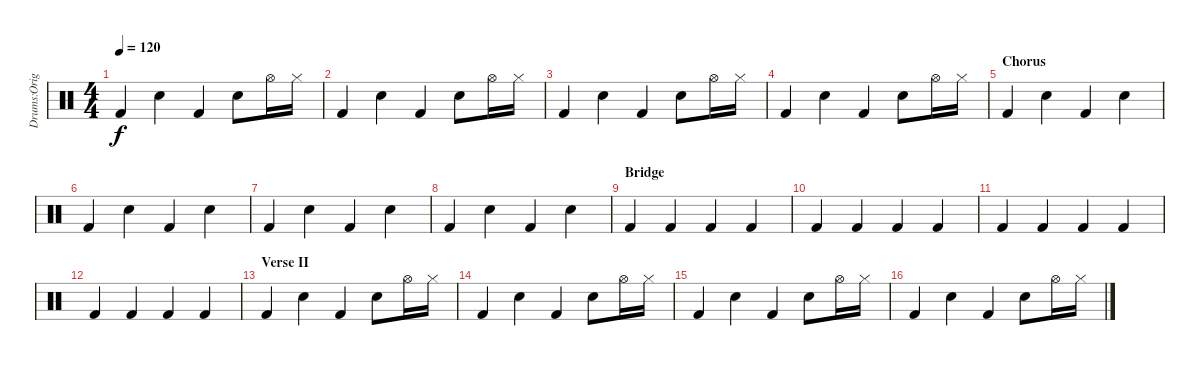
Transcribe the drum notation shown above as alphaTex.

\track ("Drums:Original" "Drums:Orig") {instrument percussion}
\staff {score}
\articulation defaults
\ts (4 4)
\tempo 120
\clef neutral
\ks c "Kick (hit) 2".4{dy f} "Snare (hit) 2".4 "Kick (hit) 2".4 "Snare (hit) 2".8 "Hi-Hat (open)".16 "Hi-Hat (closed)".16
|
"Kick (hit) 2".4 "Snare (hit) 2".4 "Kick (hit) 2".4 "Snare (hit) 2".8 "Hi-Hat (open)".16 "Hi-Hat (closed)".16 |
"Kick (hit) 2".4 "Snare (hit) 2".4 "Kick (hit) 2".4 "Snare (hit) 2".8 "Hi-Hat (open)".16 "Hi-Hat (closed)".16 |
"Kick (hit) 2".4 "Snare (hit) 2".4 "Kick (hit) 2".4 "Snare (hit) 2".8 "Hi-Hat (open)".16 "Hi-Hat (closed)".16 |
\section ("" "Chorus")
"Kick (hit) 2".4 "Snare (hit) 2".4 "Kick (hit) 2".4 "Snare (hit) 2".4 |
"Kick (hit) 2".4 "Snare (hit) 2".4 "Kick (hit) 2".4 "Snare (hit) 2".4 |
"Kick (hit) 2".4 "Snare (hit) 2".4 "Kick (hit) 2".4 "Snare (hit) 2".4 |
"Kick (hit) 2".4 "Snare (hit) 2".4 "Kick (hit) 2".4 "Snare (hit) 2".4 |
\section ("" "Bridge")
"Kick (hit) 2".4 "Kick (hit) 2".4 "Kick (hit) 2".4 "Kick (hit) 2".4 |
"Kick (hit) 2".4 "Kick (hit) 2".4 "Kick (hit) 2".4 "Kick (hit) 2".4 |
"Kick (hit) 2".4 "Kick (hit) 2".4 "Kick (hit) 2".4 "Kick (hit) 2".4 |
"Kick (hit) 2".4 "Kick (hit) 2".4 "Kick (hit) 2".4 "Kick (hit) 2".4 |
\section ("" "Verse II")
"Kick (hit) 2".4 "Snare (hit) 2".4 "Kick (hit) 2".4 "Snare (hit) 2".8 "Hi-Hat (open)".16 "Hi-Hat (closed)".16 |
"Kick (hit) 2".4 "Snare (hit) 2".4 "Kick (hit) 2".4 "Snare (hit) 2".8 "Hi-Hat (open)".16 "Hi-Hat (closed)".16 |
"Kick (hit) 2".4 "Snare (hit) 2".4 "Kick (hit) 2".4 "Snare (hit) 2".8 "Hi-Hat (open)".16 "Hi-Hat (closed)".16 |
"Kick (hit) 2".4 "Snare (hit) 2".4 "Kick (hit) 2".4 "Snare (hit) 2".8 "Hi-Hat (open)".16 "Hi-Hat (closed)".16
